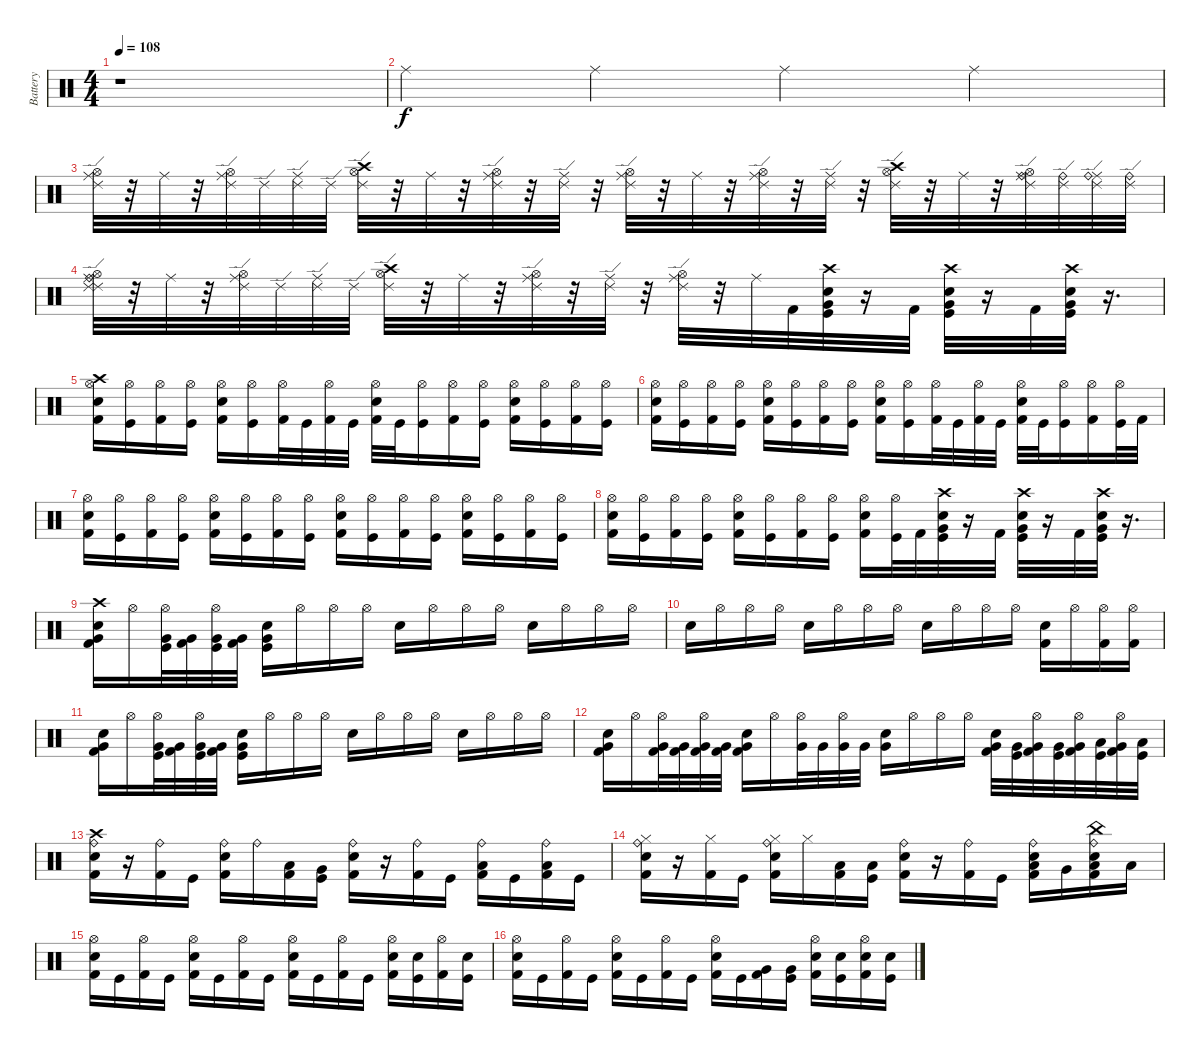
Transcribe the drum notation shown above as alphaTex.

\track ("Battery" "Battery") {instrument percussion}
\staff {score}
\articulation defaults
\ts (4 4)
\tempo 108
\clef neutral
\ks c
r.1{dy f} |
"Ride (middle)".4 "Ride (middle)".4 "Ride (middle)".4 "Ride (middle)".4 |
("Ride (middle)" "Hi-Hat (open)" "Ride (edge) 2").32 r.32 "Ride (middle)".32 r.32 ("Hi-Hat (open)" "Ride (edge) 2" "Ride (middle)").32 "Ride (edge) 2".32 ("Ride (middle)" "Ride (edge) 2").32 "Ride (edge) 2".32 ("Crash high (hit)" "Hi-Hat (open)" "Ride (edge) 2").32 r.32 "Ride (middle)".32 r.32 ("Ride (middle)" "Hi-Hat (open)" "Ride (edge) 2").32 r.32 ("Ride (middle)" "Ride (edge) 2").32 r.32 ("Hi-Hat (open)" "Ride (edge) 2" "Ride (middle)").32 r.32 "Ride (middle)".32 r.32 ("Hi-Hat (open)" "Ride (middle)" "Ride (edge) 2").32 r.32 ("Ride (edge) 2" "Ride (middle)").32 r.32 ("Crash high (hit)" "Hi-Hat (open)" "Ride (edge) 2").32 r.32 "Ride (middle)".32 r.32 ("Ride (edge) 2" "Ride (middle)" "Ride (bell)" "Hi-Hat (open)").32 ("Ride (edge) 2" "Ride (bell)").32 ("Ride (middle)" "Ride (bell)" "Ride (edge) 2").32 ("Ride (bell)" "Ride (edge) 2").32 |
("Hi-Hat (open)" "Ride (edge) 2" "Ride (bell)" "Ride (edge) 2" "Ride (middle)").32 r.32 "Ride (middle)".32 r.32 ("Ride (edge) 2" "Hi-Hat (open)" "Ride (middle)").32 "Ride (edge) 2".32 ("Ride (middle)" "Ride (edge) 2").32 "Ride (edge) 2".32 ("Hi-Hat (open)" "Ride (edge) 2" "Crash high (hit)").32 r.32 "Ride (middle)".32 r.32 ("Ride (middle)" "Ride (edge) 2" "Hi-Hat (open)").32 r.32 ("Ride (middle)" "Ride (edge) 2").32 r.32 ("Ride (middle)" "Hi-Hat (open)" "Ride (edge) 2").32 r.32 "Ride (middle)".32 "Kick (hit) 2".32 ("Very Low Tom (hit)" "Crash high (hit)" "Kick (hit)" "Snare (hit) 2").32 r.16 "Kick (hit) 2".32 ("Very Low Tom (hit)" "Crash high (hit)" "Snare (hit) 2" "Kick (hit)").32 r.16 "Kick (hit) 2".32 ("Very Low Tom (hit)" "Crash high (hit)" "Kick (hit)" "Snare (hit) 2").32 r.16{d} |
("Hi-Hat (open)" "Electric Snare (hit)" "Kick (hit) 2" "Crash high (hit)").16 ("Hi-Hat (open)" "Kick (hit)").16 ("Kick (hit) 2" "Hi-Hat (open)").16 ("Hi-Hat (open)" "Kick (hit)").16 ("Electric Snare (hit)" "Kick (hit) 2" "Hi-Hat (open)").16 ("Hi-Hat (open)" "Kick (hit)").16 ("Kick (hit) 2" "Hi-Hat (open)").32 "Kick (hit)".32 ("Kick (hit) 2" "Hi-Hat (open)").32 "Kick (hit)".32 ("Kick (hit) 2" "Electric Snare (hit)" "Hi-Hat (open)").32 "Kick (hit)".32 ("Kick (hit)" "Hi-Hat (open)").16 ("Kick (hit) 2" "Hi-Hat (open)").16 ("Kick (hit)" "Hi-Hat (open)").16 ("Kick (hit) 2" "Electric Snare (hit)" "Hi-Hat (open)").16 ("Kick (hit)" "Hi-Hat (open)").16 ("Hi-Hat (open)" "Kick (hit) 2").16 ("Hi-Hat (open)" "Kick (hit)").16 |
("Hi-Hat (open)" "Electric Snare (hit)" "Kick (hit) 2").16 ("Hi-Hat (open)" "Kick (hit)").16 ("Hi-Hat (open)" "Kick (hit) 2").16 ("Kick (hit)" "Hi-Hat (open)").16 ("Hi-Hat (open)" "Kick (hit) 2" "Electric Snare (hit)").16 ("Kick (hit)" "Hi-Hat (open)").16 ("Hi-Hat (open)" "Kick (hit) 2").16 ("Hi-Hat (open)" "Kick (hit)").16 ("Electric Snare (hit)" "Kick (hit) 2" "Hi-Hat (open)").16 ("Kick (hit)" "Hi-Hat (open)").16 ("Kick (hit) 2" "Hi-Hat (open)").32 "Kick (hit)".32 ("Kick (hit) 2" "Hi-Hat (open)").32 "Kick (hit)".32 ("Kick (hit) 2" "Hi-Hat (open)" "Electric Snare (hit)").32 "Kick (hit)".32 ("Hi-Hat (open)" "Kick (hit)").16 ("Hi-Hat (open)" "Kick (hit) 2").16 ("Hi-Hat (open)" "Kick (hit)").32 "Kick (hit) 2".32 |
("Hi-Hat (open)" "Kick (hit) 2" "Electric Snare (hit)").16 ("Hi-Hat (open)" "Kick (hit)").16 ("Kick (hit) 2" "Hi-Hat (open)").16 ("Kick (hit)" "Hi-Hat (open)").16 ("Electric Snare (hit)" "Kick (hit) 2" "Hi-Hat (open)").16 ("Hi-Hat (open)" "Kick (hit)").16 ("Hi-Hat (open)" "Kick (hit) 2").16 ("Hi-Hat (open)" "Kick (hit)").16 ("Hi-Hat (open)" "Kick (hit) 2" "Electric Snare (hit)").16 ("Hi-Hat (open)" "Kick (hit)").16 ("Hi-Hat (open)" "Kick (hit) 2").16 ("Hi-Hat (open)" "Kick (hit)").16 ("Kick (hit) 2" "Electric Snare (hit)" "Hi-Hat (open)").16 ("Hi-Hat (open)" "Kick (hit)").16 ("Kick (hit) 2" "Hi-Hat (open)").16 ("Kick (hit)" "Hi-Hat (open)").16 |
("Kick (hit) 2" "Hi-Hat (open)" "Electric Snare (hit)").16 ("Hi-Hat (open)" "Kick (hit)").16 ("Hi-Hat (open)" "Kick (hit) 2").16 ("Kick (hit)" "Hi-Hat (open)").16 ("Hi-Hat (open)" "Electric Snare (hit)" "Kick (hit) 2").16 ("Kick (hit)" "Hi-Hat (open)").16 ("Hi-Hat (open)" "Kick (hit) 2").16 ("Hi-Hat (open)" "Kick (hit)").16 ("Electric Snare (hit)" "Hi-Hat (open)" "Kick (hit) 2").16 ("Kick (hit)" "Hi-Hat (open)").32 "Kick (hit) 2".32 ("Very Low Tom (hit)" "Kick (hit)" "Crash high (hit)" "Snare (hit) 2").32 r.16 "Kick (hit) 2".32 ("Snare (hit) 2" "Crash high (hit)" "Very Low Tom (hit)" "Kick (hit)").32 r.16 "Kick (hit) 2".32 ("Crash high (hit)" "Very Low Tom (hit)" "Snare (hit) 2" "Kick (hit)").32 r.16{d} |
("Crash high (hit)" "Kick (hit) 2" "Very Low Tom (hit)" "Electric Snare (hit)").16 "Hi-Hat (open)".16 ("Kick (hit)" "Very Low Tom (hit)" "Hi-Hat (open)").32 ("Kick (hit) 2" "Very Low Tom (hit)").32 ("Kick (hit)" "Very Low Tom (hit)" "Hi-Hat (open)").32 ("Kick (hit) 2" "Very Low Tom (hit)").32 ("Kick (hit)" "Very Low Tom (hit)" "Electric Snare (hit)").16 "Hi-Hat (open)".16 "Hi-Hat (open)".16 "Hi-Hat (open)".16 "Electric Snare (hit)".16 "Hi-Hat (open)".16 "Hi-Hat (open)".16 "Hi-Hat (open)".16 "Electric Snare (hit)".16 "Hi-Hat (open)".16 "Hi-Hat (open)".16 "Hi-Hat (open)".16 |
"Electric Snare (hit)".16 "Hi-Hat (open)".16 "Hi-Hat (open)".16 "Hi-Hat (open)".16 "Electric Snare (hit)".16 "Hi-Hat (open)".16 "Hi-Hat (open)".16 "Hi-Hat (open)".16 "Electric Snare (hit)".16 "Hi-Hat (open)".16 "Hi-Hat (open)".16 "Hi-Hat (open)".16 ("Kick (hit) 2" "Electric Snare (hit)").16 "Hi-Hat (open)".16 ("Kick (hit) 2" "Hi-Hat (open)").16 ("Hi-Hat (open)" "Kick (hit) 2").16 |
("Kick (hit) 2" "Very Low Tom (hit)" "Electric Snare (hit)").16 "Hi-Hat (open)".16 ("Very Low Tom (hit)" "Kick (hit)" "Hi-Hat (open)").32 ("Kick (hit) 2" "Very Low Tom (hit)").32 ("Kick (hit)" "Hi-Hat (open)" "Very Low Tom (hit)").32 ("Kick (hit) 2" "Very Low Tom (hit)").32 ("Electric Snare (hit)" "Kick (hit)" "Very Low Tom (hit)").16 "Hi-Hat (open)".16 "Hi-Hat (open)".16 "Hi-Hat (open)".16 "Electric Snare (hit)".16 "Hi-Hat (open)".16 "Hi-Hat (open)".16 "Hi-Hat (open)".16 "Electric Snare (hit)".16 "Hi-Hat (open)".16 "Hi-Hat (open)".16 "Hi-Hat (open)".16 |
("Very Low Tom (hit)" "Electric Snare (hit)" "Kick (hit) 2").16 "Hi-Hat (open)".16 ("Very Low Tom (hit)" "Hi-Hat (open)" "Kick (hit) 2").32 ("Kick (hit) 2" "Very Low Tom (hit)").32 ("Kick (hit) 2" "Hi-Hat (open)" "Very Low Tom (hit)").32 ("Very Low Tom (hit)" "Kick (hit) 2").32 ("Very Low Tom (hit)" "Electric Snare (hit)" "Kick (hit) 2").16 "Hi-Hat (open)".16 ("Very Low Tom (hit)" "Hi-Hat (open)").32 "Very Low Tom (hit)".32 ("Hi-Hat (open)" "Very Low Tom (hit)").32 "Very Low Tom (hit)".32 ("Very Low Tom (hit)" "Electric Snare (hit)").16 "Hi-Hat (open)".16 "Hi-Hat (open)".16 "Hi-Hat (open)".16 ("Electric Snare (hit)" "Kick (hit) 2" "Very Low Tom (hit)").32 ("Kick (hit)" "Very Low Tom (hit)").32 ("Kick (hit) 2" "Very Low Tom (hit)" "Hi-Hat (open)").32 ("Very Low Tom (hit)" "Kick (hit)").32 ("Hi-Hat (open)" "Kick (hit) 2" "Very Low Tom (hit)").32 ("Kick (hit)" "Low Floor Tom (hit)").32 ("Kick (hit) 2" "Hi-Hat (open)" "Very Low Tom (hit)").32 ("Kick (hit)" "Low Floor Tom (hit)").32 |
("Electric Snare (hit)" "Ride (bell)" "Crash high (hit)" "Kick (hit) 2").16 r.16 ("Ride (bell)" "Kick (hit) 2").16 "Kick (hit)".16 ("Ride (bell)" "Kick (hit) 2" "Electric Snare (hit)").16 "Ride (bell)".16 ("Low Tom (hit)" "Kick (hit) 2").16 ("Kick (hit)" "Very Low Tom (hit)").16 ("Kick (hit) 2" "Ride (bell)" "Electric Snare (hit)").16 r.16 ("Kick (hit) 2" "Ride (bell)").16 "Kick (hit)".16 ("Low Tom (hit)" "Ride (bell)" "Kick (hit) 2").16 "Kick (hit)".16 ("Ride (bell)" "Kick (hit) 2" "Low Tom (hit)").16 "Kick (hit)".16 |
("Hi-Hat (closed)" "Ride (bell)" "Electric Snare (hit)" "Kick (hit) 2").16 r.16 ("Kick (hit) 2" "Hi-Hat (closed)").16 "Kick (hit)".16 ("Ride (bell)" "Electric Snare (hit)" "Hi-Hat (closed)" "Kick (hit) 2").16 "Hi-Hat (closed)".16 ("Low Tom (hit)" "Kick (hit) 2").16 ("Kick (hit)" "Low Tom (hit)").16 ("Electric Snare (hit)" "Kick (hit) 2" "Ride (bell)").16 r.16 ("Ride (bell)" "Kick (hit) 2").16 "Kick (hit)".16 ("Low Tom (hit)" "Kick (hit) 2" "Electric Snare (hit)" "Ride (bell)").16 "Very Low Tom (hit)".16 ("Electric Snare (hit)" "China (hit)" "Low Floor Tom (hit)" "Ride (bell)" "Kick (hit) 2").16 "Low Floor Tom (hit)".16 |
("Hi-Hat (open)" "Kick (hit) 2" "Electric Snare (hit)").16 "Kick (hit)".16 ("Hi-Hat (open)" "Kick (hit) 2").16 "Kick (hit)".16 ("Electric Snare (hit)" "Hi-Hat (open)" "Kick (hit) 2").16 "Kick (hit)".16 ("Hi-Hat (open)" "Kick (hit) 2").16 "Kick (hit)".16 ("Electric Snare (hit)" "Kick (hit) 2" "Hi-Hat (open)").16 "Kick (hit)".16 ("Hi-Hat (open)" "Kick (hit) 2").16 "Kick (hit)".16 ("Electric Snare (hit)" "Kick (hit) 2" "Hi-Hat (open)").16 ("Kick (hit)" "Electric Snare (hit)").16 ("Hi-Hat (open)" "Kick (hit) 2").16 ("Electric Snare (hit)" "Kick (hit)").16 |
("Kick (hit) 2" "Hi-Hat (open)" "Electric Snare (hit)").16 "Kick (hit)".16 ("Hi-Hat (open)" "Kick (hit) 2").16 "Kick (hit)".16 ("Kick (hit) 2" "Hi-Hat (open)" "Electric Snare (hit)").16 "Kick (hit)".16 ("Kick (hit) 2" "Hi-Hat (open)").16 "Kick (hit)".16 ("Electric Snare (hit)" "Hi-Hat (open)" "Kick (hit) 2").16 "Kick (hit)".16 ("Kick (hit) 2" "Very Low Tom (hit)").16 ("Very Low Tom (hit)" "Kick (hit)").16 ("Snare (hit) 2" "Hi-Hat (open)" "Kick (hit) 2").16 ("Kick (hit)" "Snare (hit) 2").16 ("Kick (hit) 2" "Electric Snare (hit)" "Hi-Hat (open)").16 ("Kick (hit)" "Electric Snare (hit)").16
